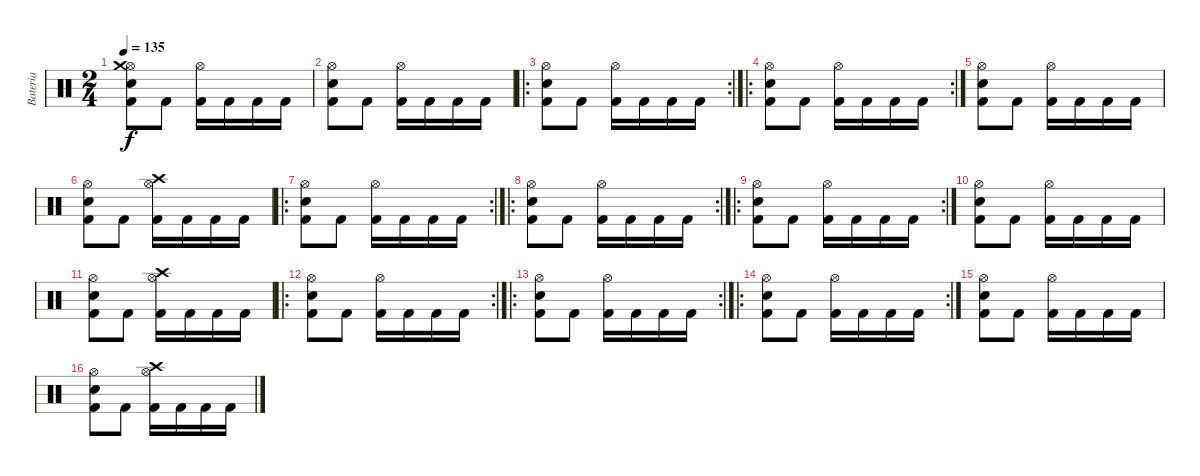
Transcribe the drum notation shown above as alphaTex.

\track ("Bateria" "Bateria") {instrument percussion}
\staff {score}
\articulation defaults
\ts (2 4)
\tempo 135
\clef neutral
\ks c
("Hi-Hat (open)" "Crash medium (hit)" "Snare (hit) 2" "Kick (hit) 2").8{dy f} "Kick (hit) 2".8 ("Hi-Hat (open)" "Kick (hit) 2").16 "Kick (hit) 2".16 "Kick (hit) 2".16 "Kick (hit) 2".16 |
("Hi-Hat (open)" "Snare (hit) 2" "Kick (hit) 2").8 "Kick (hit) 2".8 ("Hi-Hat (open)" "Kick (hit) 2").16 "Kick (hit) 2".16 "Kick (hit) 2".16 "Kick (hit) 2".16 |
\ro
\rc 2
("Hi-Hat (open)" "Snare (hit) 2" "Kick (hit) 2").8 "Kick (hit) 2".8 ("Hi-Hat (open)" "Kick (hit) 2").16 "Kick (hit) 2".16 "Kick (hit) 2".16 "Kick (hit) 2".16 |
\ro
\rc 2
("Hi-Hat (open)" "Snare (hit) 2" "Kick (hit) 2").8 "Kick (hit) 2".8 ("Hi-Hat (open)" "Kick (hit) 2").16 "Kick (hit) 2".16 "Kick (hit) 2".16 "Kick (hit) 2".16 |
("Hi-Hat (open)" "Snare (hit) 2" "Kick (hit) 2").8 "Kick (hit) 2".8 ("Hi-Hat (open)" "Kick (hit) 2").16 "Kick (hit) 2".16 "Kick (hit) 2".16 "Kick (hit) 2".16 |
("Hi-Hat (open)" "Snare (hit) 2" "Kick (hit) 2").8 "Kick (hit) 2".8 ("Hi-Hat (open)" "Crash high (hit)" "Kick (hit) 2").16 "Kick (hit) 2".16 "Kick (hit) 2".16 "Kick (hit) 2".16 |
\ro
\rc 2
("Hi-Hat (open)" "Snare (hit) 2" "Kick (hit) 2").8 "Kick (hit) 2".8 ("Hi-Hat (open)" "Kick (hit) 2").16 "Kick (hit) 2".16 "Kick (hit) 2".16 "Kick (hit) 2".16 |
\ro
\rc 2
("Hi-Hat (open)" "Snare (hit) 2" "Kick (hit) 2").8 "Kick (hit) 2".8 ("Hi-Hat (open)" "Kick (hit) 2").16 "Kick (hit) 2".16 "Kick (hit) 2".16 "Kick (hit) 2".16 |
\ro
\rc 2
("Hi-Hat (open)" "Snare (hit) 2" "Kick (hit) 2").8 "Kick (hit) 2".8 ("Hi-Hat (open)" "Kick (hit) 2").16 "Kick (hit) 2".16 "Kick (hit) 2".16 "Kick (hit) 2".16 |
("Hi-Hat (open)" "Snare (hit) 2" "Kick (hit) 2").8 "Kick (hit) 2".8 ("Hi-Hat (open)" "Kick (hit) 2").16 "Kick (hit) 2".16 "Kick (hit) 2".16 "Kick (hit) 2".16 |
("Hi-Hat (open)" "Snare (hit) 2" "Kick (hit) 2").8 "Kick (hit) 2".8 ("Hi-Hat (open)" "Crash high (hit)" "Kick (hit) 2").16 "Kick (hit) 2".16 "Kick (hit) 2".16 "Kick (hit) 2".16 |
\ro
\rc 2
("Hi-Hat (open)" "Snare (hit) 2" "Kick (hit) 2").8 "Kick (hit) 2".8 ("Hi-Hat (open)" "Kick (hit) 2").16 "Kick (hit) 2".16 "Kick (hit) 2".16 "Kick (hit) 2".16 |
\ro
\rc 2
("Hi-Hat (open)" "Snare (hit) 2" "Kick (hit) 2").8 "Kick (hit) 2".8 ("Hi-Hat (open)" "Kick (hit) 2").16 "Kick (hit) 2".16 "Kick (hit) 2".16 "Kick (hit) 2".16 |
\ro
\rc 2
("Hi-Hat (open)" "Snare (hit) 2" "Kick (hit) 2").8 "Kick (hit) 2".8 ("Hi-Hat (open)" "Kick (hit) 2").16 "Kick (hit) 2".16 "Kick (hit) 2".16 "Kick (hit) 2".16 |
("Hi-Hat (open)" "Snare (hit) 2" "Kick (hit) 2").8 "Kick (hit) 2".8 ("Hi-Hat (open)" "Kick (hit) 2").16 "Kick (hit) 2".16 "Kick (hit) 2".16 "Kick (hit) 2".16 |
("Hi-Hat (open)" "Snare (hit) 2" "Kick (hit) 2").8 "Kick (hit) 2".8 ("Hi-Hat (open)" "Crash high (hit)" "Kick (hit) 2").16 "Kick (hit) 2".16 "Kick (hit) 2".16 "Kick (hit) 2".16
